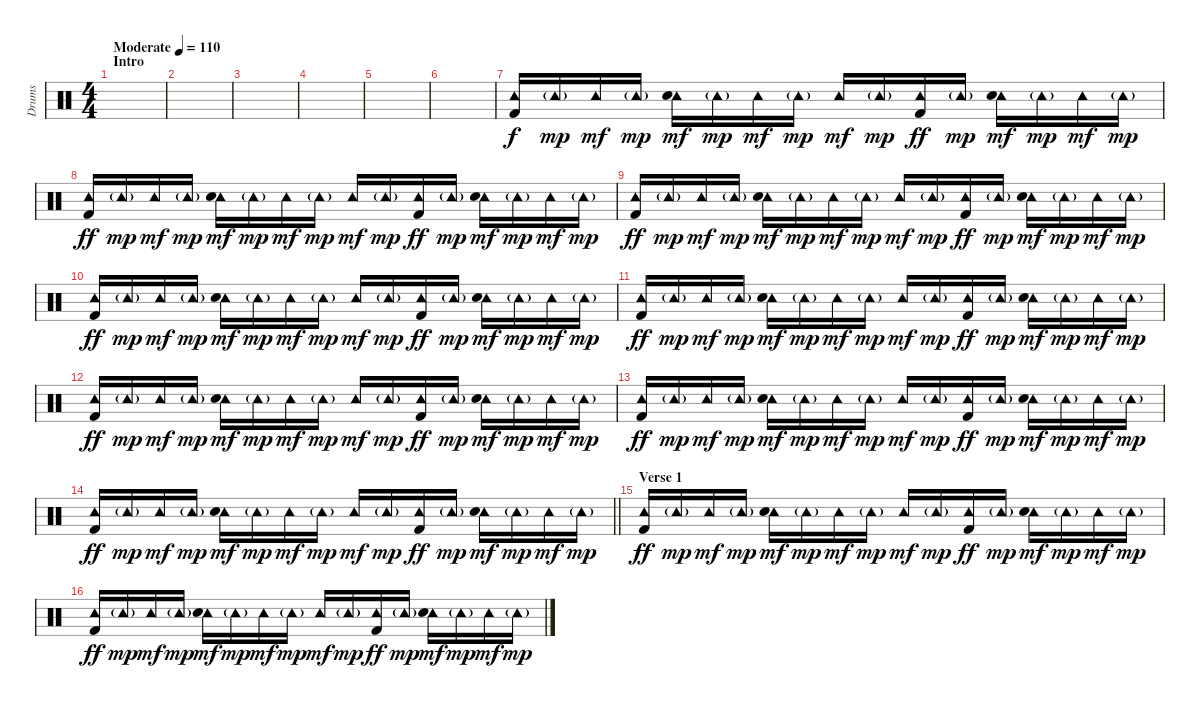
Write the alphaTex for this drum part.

\track ("Drums" "Drums") {instrument percussion}
\staff {score}
\articulation defaults
\ts (4 4)
\section ("" "Intro")
\tempo (110 "Moderate")
\clef neutral
\ks c
|
|
|
|
|
|
("Tambourine (hit)" "Kick (hit) 2").16 "Tambourine (hit)"{g}.16{dy mp} "Tambourine (hit)".16{dy mf} "Tambourine (hit)"{g}.16{dy mp} ("Tambourine (hit)" "Snare (hit) 2").16{dy mf} "Tambourine (hit)"{g}.16{dy mp} "Tambourine (hit)".16{dy mf} "Tambourine (hit)"{g}.16{dy mp} "Tambourine (hit)".16{dy mf} "Tambourine (hit)"{g}.16{dy mp} ("Tambourine (hit)" "Kick (hit) 2").16{dy ff} "Tambourine (hit)"{g}.16{dy mp} ("Tambourine (hit)" "Snare (hit) 2").16{dy mf} "Tambourine (hit)"{g}.16{dy mp} "Tambourine (hit)".16{dy mf} "Tambourine (hit)"{g}.16{dy mp} |
("Tambourine (hit)" "Kick (hit) 2").16{dy ff} "Tambourine (hit)"{g}.16{dy mp} "Tambourine (hit)".16{dy mf} "Tambourine (hit)"{g}.16{dy mp} ("Tambourine (hit)" "Snare (hit) 2").16{dy mf} "Tambourine (hit)"{g}.16{dy mp} "Tambourine (hit)".16{dy mf} "Tambourine (hit)"{g}.16{dy mp} "Tambourine (hit)".16{dy mf} "Tambourine (hit)"{g}.16{dy mp} ("Tambourine (hit)" "Kick (hit) 2").16{dy ff} "Tambourine (hit)"{g}.16{dy mp} ("Tambourine (hit)" "Snare (hit) 2").16{dy mf} "Tambourine (hit)"{g}.16{dy mp} "Tambourine (hit)".16{dy mf} "Tambourine (hit)"{g}.16{dy mp} |
("Tambourine (hit)" "Kick (hit) 2").16{dy ff} "Tambourine (hit)"{g}.16{dy mp} "Tambourine (hit)".16{dy mf} "Tambourine (hit)"{g}.16{dy mp} ("Tambourine (hit)" "Snare (hit) 2").16{dy mf} "Tambourine (hit)"{g}.16{dy mp} "Tambourine (hit)".16{dy mf} "Tambourine (hit)"{g}.16{dy mp} "Tambourine (hit)".16{dy mf} "Tambourine (hit)"{g}.16{dy mp} ("Tambourine (hit)" "Kick (hit) 2").16{dy ff} "Tambourine (hit)"{g}.16{dy mp} ("Tambourine (hit)" "Snare (hit) 2").16{dy mf} "Tambourine (hit)"{g}.16{dy mp} "Tambourine (hit)".16{dy mf} "Tambourine (hit)"{g}.16{dy mp} |
("Tambourine (hit)" "Kick (hit) 2").16{dy ff} "Tambourine (hit)"{g}.16{dy mp} "Tambourine (hit)".16{dy mf} "Tambourine (hit)"{g}.16{dy mp} ("Tambourine (hit)" "Snare (hit) 2").16{dy mf} "Tambourine (hit)"{g}.16{dy mp} "Tambourine (hit)".16{dy mf} "Tambourine (hit)"{g}.16{dy mp} "Tambourine (hit)".16{dy mf} "Tambourine (hit)"{g}.16{dy mp} ("Tambourine (hit)" "Kick (hit) 2").16{dy ff} "Tambourine (hit)"{g}.16{dy mp} ("Tambourine (hit)" "Snare (hit) 2").16{dy mf} "Tambourine (hit)"{g}.16{dy mp} "Tambourine (hit)".16{dy mf} "Tambourine (hit)"{g}.16{dy mp} |
("Tambourine (hit)" "Kick (hit) 2").16{dy ff} "Tambourine (hit)"{g}.16{dy mp} "Tambourine (hit)".16{dy mf} "Tambourine (hit)"{g}.16{dy mp} ("Tambourine (hit)" "Snare (hit) 2").16{dy mf} "Tambourine (hit)"{g}.16{dy mp} "Tambourine (hit)".16{dy mf} "Tambourine (hit)"{g}.16{dy mp} "Tambourine (hit)".16{dy mf} "Tambourine (hit)"{g}.16{dy mp} ("Tambourine (hit)" "Kick (hit) 2").16{dy ff} "Tambourine (hit)"{g}.16{dy mp} ("Tambourine (hit)" "Snare (hit) 2").16{dy mf} "Tambourine (hit)"{g}.16{dy mp} "Tambourine (hit)".16{dy mf} "Tambourine (hit)"{g}.16{dy mp} |
("Tambourine (hit)" "Kick (hit) 2").16{dy ff} "Tambourine (hit)"{g}.16{dy mp} "Tambourine (hit)".16{dy mf} "Tambourine (hit)"{g}.16{dy mp} ("Tambourine (hit)" "Snare (hit) 2").16{dy mf} "Tambourine (hit)"{g}.16{dy mp} "Tambourine (hit)".16{dy mf} "Tambourine (hit)"{g}.16{dy mp} "Tambourine (hit)".16{dy mf} "Tambourine (hit)"{g}.16{dy mp} ("Tambourine (hit)" "Kick (hit) 2").16{dy ff} "Tambourine (hit)"{g}.16{dy mp} ("Tambourine (hit)" "Snare (hit) 2").16{dy mf} "Tambourine (hit)"{g}.16{dy mp} "Tambourine (hit)".16{dy mf} "Tambourine (hit)"{g}.16{dy mp} |
("Tambourine (hit)" "Kick (hit) 2").16{dy ff} "Tambourine (hit)"{g}.16{dy mp} "Tambourine (hit)".16{dy mf} "Tambourine (hit)"{g}.16{dy mp} ("Tambourine (hit)" "Snare (hit) 2").16{dy mf} "Tambourine (hit)"{g}.16{dy mp} "Tambourine (hit)".16{dy mf} "Tambourine (hit)"{g}.16{dy mp} "Tambourine (hit)".16{dy mf} "Tambourine (hit)"{g}.16{dy mp} ("Tambourine (hit)" "Kick (hit) 2").16{dy ff} "Tambourine (hit)"{g}.16{dy mp} ("Tambourine (hit)" "Snare (hit) 2").16{dy mf} "Tambourine (hit)"{g}.16{dy mp} "Tambourine (hit)".16{dy mf} "Tambourine (hit)"{g}.16{dy mp} |
\barLineRight lightlight
("Tambourine (hit)" "Kick (hit) 2").16{dy ff} "Tambourine (hit)"{g}.16{dy mp} "Tambourine (hit)".16{dy mf} "Tambourine (hit)"{g}.16{dy mp} ("Tambourine (hit)" "Snare (hit) 2").16{dy mf} "Tambourine (hit)"{g}.16{dy mp} "Tambourine (hit)".16{dy mf} "Tambourine (hit)"{g}.16{dy mp} "Tambourine (hit)".16{dy mf} "Tambourine (hit)"{g}.16{dy mp} ("Tambourine (hit)" "Kick (hit) 2").16{dy ff} "Tambourine (hit)"{g}.16{dy mp} ("Tambourine (hit)" "Snare (hit) 2").16{dy mf} "Tambourine (hit)"{g}.16{dy mp} "Tambourine (hit)".16{dy mf} "Tambourine (hit)"{g}.16{dy mp} |
\section ("" "Verse 1")
("Tambourine (hit)" "Kick (hit) 2").16{dy ff} "Tambourine (hit)"{g}.16{dy mp} "Tambourine (hit)".16{dy mf} "Tambourine (hit)"{g}.16{dy mp} ("Tambourine (hit)" "Snare (hit) 2").16{dy mf} "Tambourine (hit)"{g}.16{dy mp} "Tambourine (hit)".16{dy mf} "Tambourine (hit)"{g}.16{dy mp} "Tambourine (hit)".16{dy mf} "Tambourine (hit)"{g}.16{dy mp} ("Tambourine (hit)" "Kick (hit) 2").16{dy ff} "Tambourine (hit)"{g}.16{dy mp} ("Tambourine (hit)" "Snare (hit) 2").16{dy mf} "Tambourine (hit)"{g}.16{dy mp} "Tambourine (hit)".16{dy mf} "Tambourine (hit)"{g}.16{dy mp} |
("Tambourine (hit)" "Kick (hit) 2").16{dy ff} "Tambourine (hit)"{g}.16{dy mp} "Tambourine (hit)".16{dy mf} "Tambourine (hit)"{g}.16{dy mp} ("Tambourine (hit)" "Snare (hit) 2").16{dy mf} "Tambourine (hit)"{g}.16{dy mp} "Tambourine (hit)".16{dy mf} "Tambourine (hit)"{g}.16{dy mp} "Tambourine (hit)".16{dy mf} "Tambourine (hit)"{g}.16{dy mp} ("Tambourine (hit)" "Kick (hit) 2").16{dy ff} "Tambourine (hit)"{g}.16{dy mp} ("Tambourine (hit)" "Snare (hit) 2").16{dy mf} "Tambourine (hit)"{g}.16{dy mp} "Tambourine (hit)".16{dy mf} "Tambourine (hit)"{g}.16{dy mp}
